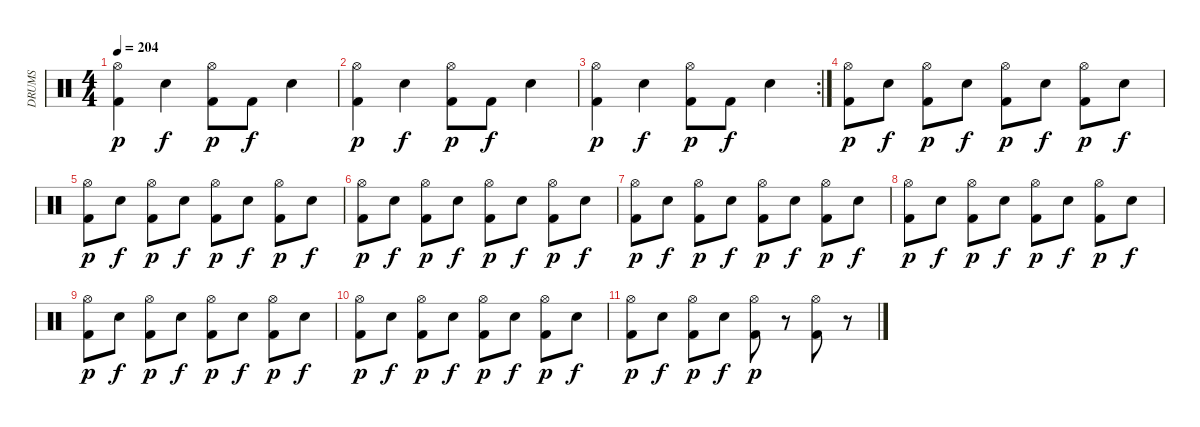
\track ("DRUMS" "DRUMS") {instrument percussion}
\staff {score}
\articulation defaults
\ts (4 4)
\tempo 204
\clef neutral
\ks c
("Kick (hit) 2" "Hi-Hat (open)").4{dy p} "Electric Snare (hit)".4{dy f} ("Kick (hit) 2" "Hi-Hat (open)").8{dy p} "Kick (hit) 2".8{dy f} "Electric Snare (hit)".4 |
("Kick (hit) 2" "Hi-Hat (open)").4{dy p} "Electric Snare (hit)".4{dy f} ("Kick (hit) 2" "Hi-Hat (open)").8{dy p} "Kick (hit) 2".8{dy f} "Electric Snare (hit)".4 |
\rc 2
("Kick (hit) 2" "Hi-Hat (open)").4{dy p} "Electric Snare (hit)".4{dy f} ("Kick (hit) 2" "Hi-Hat (open)").8{dy p} "Kick (hit) 2".8{dy f} "Electric Snare (hit)".4 |
("Kick (hit) 2" "Hi-Hat (open)").8{dy p} "Electric Snare (hit)".8{dy f} ("Kick (hit) 2" "Hi-Hat (open)").8{dy p} "Electric Snare (hit)".8{dy f} ("Kick (hit) 2" "Hi-Hat (open)").8{dy p} "Electric Snare (hit)".8{dy f} ("Kick (hit) 2" "Hi-Hat (open)").8{dy p} "Electric Snare (hit)".8{dy f} |
("Kick (hit) 2" "Hi-Hat (open)").8{dy p} "Electric Snare (hit)".8{dy f} ("Kick (hit) 2" "Hi-Hat (open)").8{dy p} "Electric Snare (hit)".8{dy f} ("Kick (hit) 2" "Hi-Hat (open)").8{dy p} "Electric Snare (hit)".8{dy f} ("Kick (hit) 2" "Hi-Hat (open)").8{dy p} "Electric Snare (hit)".8{dy f} |
("Kick (hit) 2" "Hi-Hat (open)").8{dy p} "Electric Snare (hit)".8{dy f} ("Kick (hit) 2" "Hi-Hat (open)").8{dy p} "Electric Snare (hit)".8{dy f} ("Kick (hit) 2" "Hi-Hat (open)").8{dy p} "Electric Snare (hit)".8{dy f} ("Kick (hit) 2" "Hi-Hat (open)").8{dy p} "Electric Snare (hit)".8{dy f} |
("Kick (hit) 2" "Hi-Hat (open)").8{dy p} "Electric Snare (hit)".8{dy f} ("Kick (hit) 2" "Hi-Hat (open)").8{dy p} "Electric Snare (hit)".8{dy f} ("Kick (hit) 2" "Hi-Hat (open)").8{dy p} "Electric Snare (hit)".8{dy f} ("Kick (hit) 2" "Hi-Hat (open)").8{dy p} "Electric Snare (hit)".8{dy f} |
("Kick (hit) 2" "Hi-Hat (open)").8{dy p} "Electric Snare (hit)".8{dy f} ("Kick (hit) 2" "Hi-Hat (open)").8{dy p} "Electric Snare (hit)".8{dy f} ("Kick (hit) 2" "Hi-Hat (open)").8{dy p} "Electric Snare (hit)".8{dy f} ("Kick (hit) 2" "Hi-Hat (open)").8{dy p} "Electric Snare (hit)".8{dy f} |
("Kick (hit) 2" "Hi-Hat (open)").8{dy p} "Electric Snare (hit)".8{dy f} ("Kick (hit) 2" "Hi-Hat (open)").8{dy p} "Electric Snare (hit)".8{dy f} ("Kick (hit) 2" "Hi-Hat (open)").8{dy p} "Electric Snare (hit)".8{dy f} ("Kick (hit) 2" "Hi-Hat (open)").8{dy p} "Electric Snare (hit)".8{dy f} |
("Kick (hit) 2" "Hi-Hat (open)").8{dy p} "Electric Snare (hit)".8{dy f} ("Kick (hit) 2" "Hi-Hat (open)").8{dy p} "Electric Snare (hit)".8{dy f} ("Kick (hit) 2" "Hi-Hat (open)").8{dy p} "Electric Snare (hit)".8{dy f} ("Kick (hit) 2" "Hi-Hat (open)").8{dy p} "Electric Snare (hit)".8{dy f} |
("Kick (hit) 2" "Hi-Hat (open)").8{dy p} "Electric Snare (hit)".8{dy f} ("Kick (hit) 2" "Hi-Hat (open)").8{dy p} "Electric Snare (hit)".8{dy f} ("Kick (hit) 2" "Hi-Hat (open)").8{dy p} r.8 ("Kick (hit) 2" "Hi-Hat (open)").8 r.8
